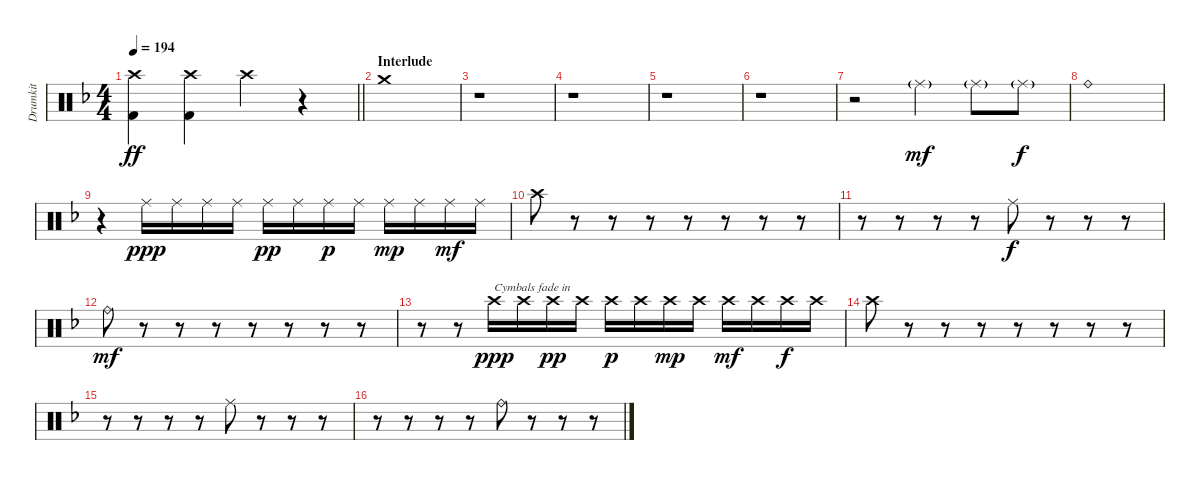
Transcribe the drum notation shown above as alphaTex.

\track ("Drumkit" "Drumkit") {instrument percussion}
\staff {score}
\articulation defaults
\ts (4 4)
\tempo 194
\clef neutral
\barLineRight lightlight
\ks f
("Crash high (hit)" "Kick (hit) 2").4{dy ff} ("Crash high (hit)" "Kick (hit) 2").4 "Crash high (hit)".4 r.4 |
\section ("" "Interlude")
"Crash medium (hit)".1 |
r.1 |
r.1 |
r.1 |
r.1 |
r.2 "Ride (middle)"{g}.4{dy mf} "Ride (middle)"{g}.8 "Ride (middle)"{g}.8{dy f} |
"Ride (bell)".1 |
r.4 "Ride (middle)".16{dy ppp} "Ride (middle)".16 "Ride (middle)".16 "Ride (middle)".16 "Ride (middle)".16{dy pp} "Ride (middle)".16 "Ride (middle)".16{dy p} "Ride (middle)".16 "Ride (middle)".16{dy mp} "Ride (middle)".16 "Ride (middle)".16{dy mf} "Ride (middle)".16 |
"Crash high (hit)".8 r.8 r.8 r.8 r.8 r.8 r.8 r.8 |
r.8 r.8 r.8 r.8 "Ride (middle)".8{dy f} r.8 r.8 r.8 |
"Ride (bell)".8{dy mf} r.8 r.8 r.8 r.8 r.8 r.8 r.8 |
r.8 r.8 "Crash high (hit)".16{txt "Cymbals fade in" dy ppp} "Crash high (hit)".16 "Crash high (hit)".16{dy pp} "Crash high (hit)".16 "Crash high (hit)".16{dy p} "Crash high (hit)".16 "Crash high (hit)".16{dy mp} "Crash high (hit)".16 "Crash high (hit)".16{dy mf} "Crash high (hit)".16 "Crash high (hit)".16{dy f} "Crash high (hit)".16 |
"Crash high (hit)".8 r.8 r.8 r.8 r.8 r.8 r.8 r.8 |
r.8 r.8 r.8 r.8 "Ride (middle)".8 r.8 r.8 r.8 |
r.8 r.8 r.8 r.8 "Ride (bell)".8 r.8 r.8 r.8
